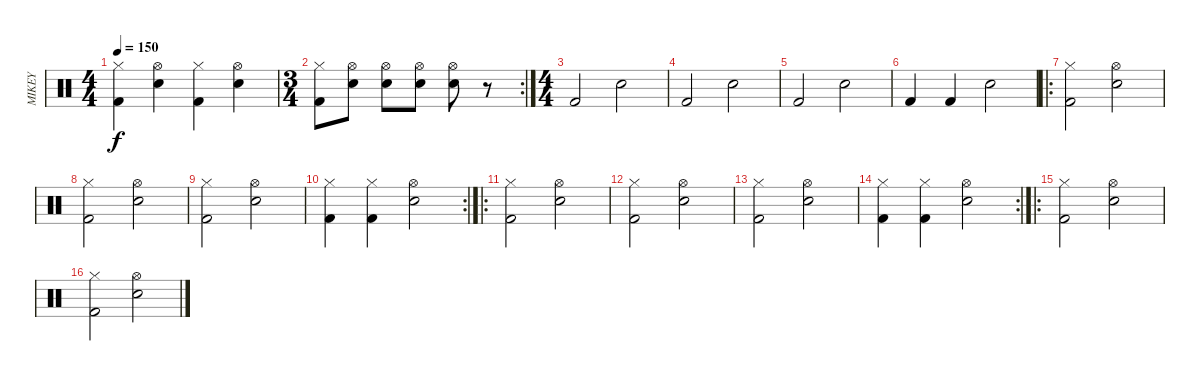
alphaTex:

\track ("MIKEY" "MIKEY") {instrument percussion}
\staff {score}
\articulation defaults
\ts (4 4)
\tempo 150
\clef neutral
\ks c
("Hi-Hat (closed)" "Kick (hit) 2").4{dy f} ("Hi-Hat (open)" "Snare (hit) 2").4 ("Hi-Hat (closed)" "Kick (hit) 2").4 ("Hi-Hat (open)" "Snare (hit) 2").4 |
\rc 2
\ts (3 4)
("Hi-Hat (closed)" "Kick (hit) 2").8 ("Hi-Hat (open)" "Snare (hit) 2").8 ("Hi-Hat (open)" "Snare (hit) 2").8 ("Hi-Hat (open)" "Snare (hit) 2").8 ("Hi-Hat (open)" "Snare (hit) 2").8 r.8 |
\ts (4 4)
"Kick (hit) 2".2 "Electric Snare (hit)".2 |
"Kick (hit) 2".2 "Electric Snare (hit)".2 |
"Kick (hit) 2".2 "Electric Snare (hit)".2 |
"Kick (hit) 2".4 "Kick (hit) 2".4 "Electric Snare (hit)".2 |
\ro
("Hi-Hat (closed)" "Kick (hit) 2").2 ("Hi-Hat (open)" "Electric Snare (hit)").2 |
("Hi-Hat (closed)" "Kick (hit) 2").2 ("Hi-Hat (open)" "Electric Snare (hit)").2 |
("Hi-Hat (closed)" "Kick (hit) 2").2 ("Hi-Hat (open)" "Electric Snare (hit)").2 |
\rc 2
("Hi-Hat (closed)" "Kick (hit) 2").4 ("Hi-Hat (closed)" "Kick (hit) 2").4 ("Hi-Hat (open)" "Electric Snare (hit)").2 |
\ro
("Hi-Hat (closed)" "Kick (hit) 2").2 ("Hi-Hat (open)" "Electric Snare (hit)").2 |
("Hi-Hat (closed)" "Kick (hit) 2").2 ("Hi-Hat (open)" "Electric Snare (hit)").2 |
("Hi-Hat (closed)" "Kick (hit) 2").2 ("Hi-Hat (open)" "Electric Snare (hit)").2 |
\rc 2
("Hi-Hat (closed)" "Kick (hit) 2").4 ("Hi-Hat (closed)" "Kick (hit) 2").4 ("Hi-Hat (open)" "Electric Snare (hit)").2 |
\ro
("Hi-Hat (closed)" "Kick (hit) 2").2 ("Hi-Hat (open)" "Electric Snare (hit)").2 |
("Hi-Hat (closed)" "Kick (hit) 2").2 ("Hi-Hat (open)" "Electric Snare (hit)").2
